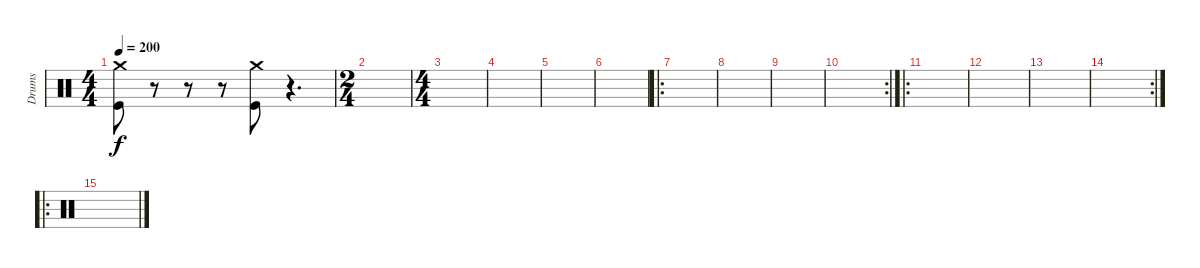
\track ("Drums" "Drums") {instrument percussion}
\staff {score}
\articulation defaults
\ts (4 4)
\tempo 200
\clef neutral
\ks c
("Crash medium (hit)" "Kick (hit)").8{dy f} r.8{volume 0} r.8 r.8 ("Crash medium (hit)" "Kick (hit)").8{volume 13} r.4{d volume 0} |
\ts (2 4)
|
\ts (4 4)
|
|
|
|
\ro
|
|
|
\rc 2
|
\ro
|
|
|
\rc 2
|
\ro
